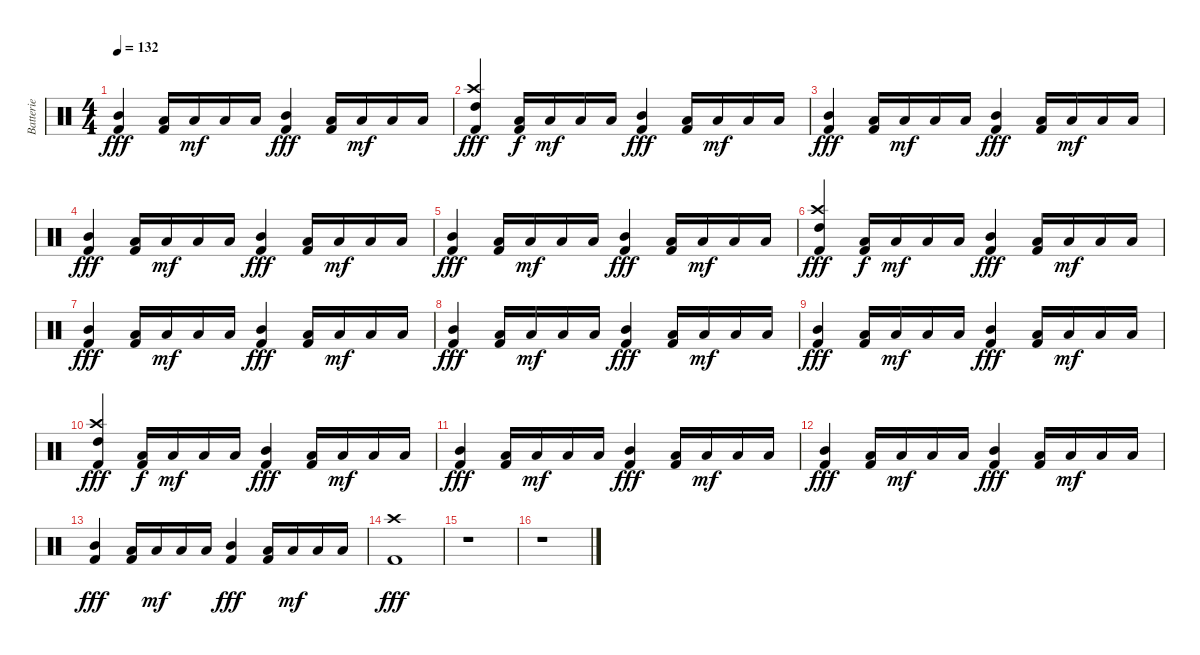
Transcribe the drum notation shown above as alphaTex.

\track ("Batterie" "Batterie") {instrument percussion}
\staff {score}
\articulation defaults
\ts (4 4)
\tempo 132
\clef neutral
\ks c
("Mid Tom (hit)" "Kick (hit) 2").4{dy fff} ("Low Tom (hit)" "Kick (hit) 2").16 "Low Tom (hit)".16{dy mf} "Low Tom (hit)".16 "Low Tom (hit)".16 ("Mid Tom (hit)" "Kick (hit) 2").4{dy fff} ("Low Tom (hit)" "Kick (hit) 2").16 "Low Tom (hit)".16{dy mf} "Low Tom (hit)".16 "Low Tom (hit)".16 |
("Crash high (hit)" "High Tom (hit)" "Kick (hit) 2").4{dy fff} ("Low Tom (hit)" "Kick (hit) 2").16{dy f} "Low Tom (hit)".16{dy mf} "Low Tom (hit)".16 "Low Tom (hit)".16 ("Mid Tom (hit)" "Kick (hit) 2").4{dy fff} ("Low Tom (hit)" "Kick (hit) 2").16 "Low Tom (hit)".16{dy mf} "Low Tom (hit)".16 "Low Tom (hit)".16 |
("Mid Tom (hit)" "Kick (hit) 2").4{dy fff} ("Low Tom (hit)" "Kick (hit) 2").16 "Low Tom (hit)".16{dy mf} "Low Tom (hit)".16 "Low Tom (hit)".16 ("Mid Tom (hit)" "Kick (hit) 2").4{dy fff} ("Low Tom (hit)" "Kick (hit) 2").16 "Low Tom (hit)".16{dy mf} "Low Tom (hit)".16 "Low Tom (hit)".16 |
("Mid Tom (hit)" "Kick (hit) 2").4{dy fff} ("Low Tom (hit)" "Kick (hit) 2").16 "Low Tom (hit)".16{dy mf} "Low Tom (hit)".16 "Low Tom (hit)".16 ("Mid Tom (hit)" "Kick (hit) 2").4{dy fff} ("Low Tom (hit)" "Kick (hit) 2").16 "Low Tom (hit)".16{dy mf} "Low Tom (hit)".16 "Low Tom (hit)".16 |
("Mid Tom (hit)" "Kick (hit) 2").4{dy fff} ("Low Tom (hit)" "Kick (hit) 2").16 "Low Tom (hit)".16{dy mf} "Low Tom (hit)".16 "Low Tom (hit)".16 ("Mid Tom (hit)" "Kick (hit) 2").4{dy fff} ("Low Tom (hit)" "Kick (hit) 2").16 "Low Tom (hit)".16{dy mf} "Low Tom (hit)".16 "Low Tom (hit)".16 |
("Crash high (hit)" "High Tom (hit)" "Kick (hit) 2").4{dy fff} ("Low Tom (hit)" "Kick (hit) 2").16{dy f} "Low Tom (hit)".16{dy mf} "Low Tom (hit)".16 "Low Tom (hit)".16 ("Mid Tom (hit)" "Kick (hit) 2").4{dy fff} ("Low Tom (hit)" "Kick (hit) 2").16 "Low Tom (hit)".16{dy mf} "Low Tom (hit)".16 "Low Tom (hit)".16 |
("Mid Tom (hit)" "Kick (hit) 2").4{dy fff} ("Low Tom (hit)" "Kick (hit) 2").16 "Low Tom (hit)".16{dy mf} "Low Tom (hit)".16 "Low Tom (hit)".16 ("Mid Tom (hit)" "Kick (hit) 2").4{dy fff} ("Low Tom (hit)" "Kick (hit) 2").16 "Low Tom (hit)".16{dy mf} "Low Tom (hit)".16 "Low Tom (hit)".16 |
("Mid Tom (hit)" "Kick (hit) 2").4{dy fff} ("Low Tom (hit)" "Kick (hit) 2").16 "Low Tom (hit)".16{dy mf} "Low Tom (hit)".16 "Low Tom (hit)".16 ("Mid Tom (hit)" "Kick (hit) 2").4{dy fff} ("Low Tom (hit)" "Kick (hit) 2").16 "Low Tom (hit)".16{dy mf} "Low Tom (hit)".16 "Low Tom (hit)".16 |
("Mid Tom (hit)" "Kick (hit) 2").4{dy fff} ("Low Tom (hit)" "Kick (hit) 2").16 "Low Tom (hit)".16{dy mf} "Low Tom (hit)".16 "Low Tom (hit)".16 ("Mid Tom (hit)" "Kick (hit) 2").4{dy fff} ("Low Tom (hit)" "Kick (hit) 2").16 "Low Tom (hit)".16{dy mf} "Low Tom (hit)".16 "Low Tom (hit)".16 |
("Crash high (hit)" "High Tom (hit)" "Kick (hit) 2").4{dy fff} ("Low Tom (hit)" "Kick (hit) 2").16{dy f} "Low Tom (hit)".16{dy mf} "Low Tom (hit)".16 "Low Tom (hit)".16 ("Mid Tom (hit)" "Kick (hit) 2").4{dy fff} ("Low Tom (hit)" "Kick (hit) 2").16 "Low Tom (hit)".16{dy mf} "Low Tom (hit)".16 "Low Tom (hit)".16 |
("Mid Tom (hit)" "Kick (hit) 2").4{dy fff} ("Low Tom (hit)" "Kick (hit) 2").16 "Low Tom (hit)".16{dy mf} "Low Tom (hit)".16 "Low Tom (hit)".16 ("Mid Tom (hit)" "Kick (hit) 2").4{dy fff} ("Low Tom (hit)" "Kick (hit) 2").16 "Low Tom (hit)".16{dy mf} "Low Tom (hit)".16 "Low Tom (hit)".16 |
("Mid Tom (hit)" "Kick (hit) 2").4{dy fff} ("Low Tom (hit)" "Kick (hit) 2").16 "Low Tom (hit)".16{dy mf} "Low Tom (hit)".16 "Low Tom (hit)".16 ("Mid Tom (hit)" "Kick (hit) 2").4{dy fff} ("Low Tom (hit)" "Kick (hit) 2").16 "Low Tom (hit)".16{dy mf} "Low Tom (hit)".16 "Low Tom (hit)".16 |
("Mid Tom (hit)" "Kick (hit) 2").4{dy fff} ("Low Tom (hit)" "Kick (hit) 2").16 "Low Tom (hit)".16{dy mf} "Low Tom (hit)".16 "Low Tom (hit)".16 ("Mid Tom (hit)" "Kick (hit) 2").4{dy fff} ("Low Tom (hit)" "Kick (hit) 2").16 "Low Tom (hit)".16{dy mf} "Low Tom (hit)".16 "Low Tom (hit)".16 |
("Crash high (hit)" "Kick (hit) 2").1{dy fff} |
r.1 |
r.1
